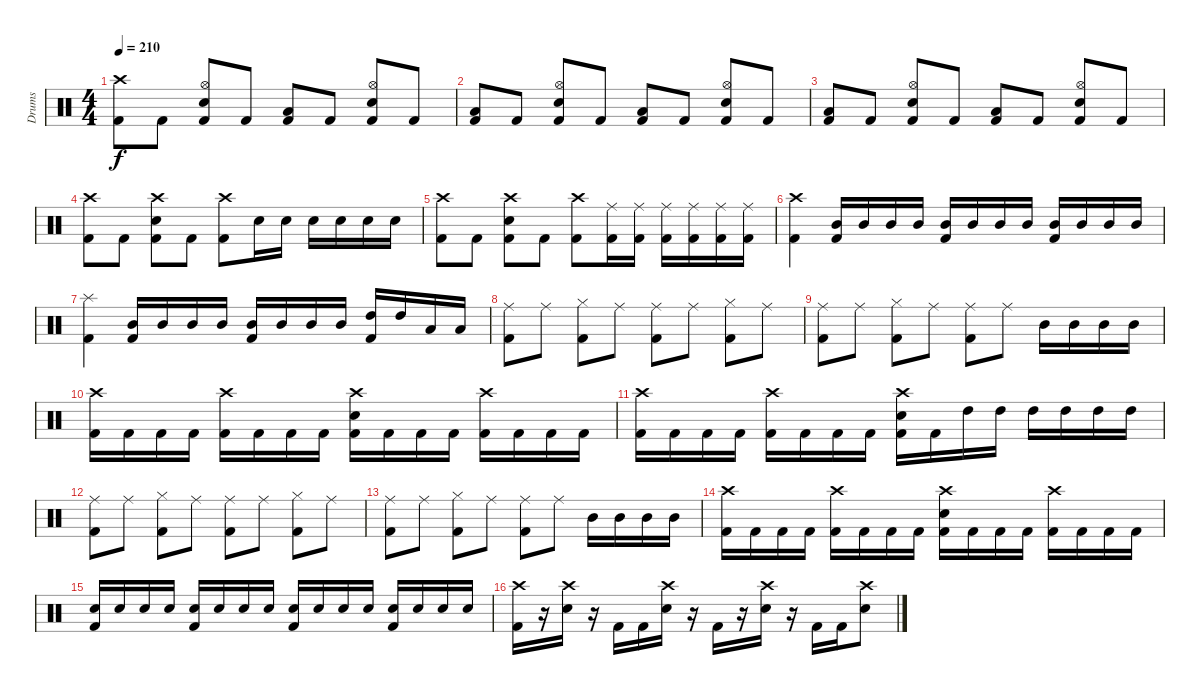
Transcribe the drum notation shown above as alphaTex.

\track ("Drums" "Drums") {instrument percussion}
\staff {score}
\articulation defaults
\ts (4 4)
\tempo 210
\clef neutral
\ks c
("Crash high (hit)" "Kick (hit) 2").8{dy f} "Kick (hit) 2".8 ("Hi-Hat (open)" "Snare (hit) 2" "Kick (hit) 2").8 "Kick (hit) 2".8 ("Low Tom (hit)" "Kick (hit) 2").8 "Kick (hit) 2".8 ("Hi-Hat (open)" "Snare (hit) 2" "Kick (hit) 2").8 "Kick (hit) 2".8 |
("Low Tom (hit)" "Kick (hit) 2").8 "Kick (hit) 2".8 ("Hi-Hat (open)" "Snare (hit) 2" "Kick (hit) 2").8 "Kick (hit) 2".8 ("Low Tom (hit)" "Kick (hit) 2").8 "Kick (hit) 2".8 ("Hi-Hat (open)" "Snare (hit) 2" "Kick (hit) 2").8 "Kick (hit) 2".8 |
("Low Tom (hit)" "Kick (hit) 2").8 "Kick (hit) 2".8 ("Hi-Hat (open)" "Snare (hit) 2" "Kick (hit) 2").8 "Kick (hit) 2".8 ("Low Tom (hit)" "Kick (hit) 2").8 "Kick (hit) 2".8 ("Hi-Hat (open)" "Snare (hit) 2" "Kick (hit) 2").8 "Kick (hit) 2".8 |
("Crash high (hit)" "Kick (hit) 2").8 "Kick (hit) 2".8 ("Crash high (hit)" "Snare (hit) 2" "Kick (hit) 2").8 "Kick (hit) 2".8 ("Crash high (hit)" "Kick (hit) 2").8 "Snare (hit) 2".16 "Snare (hit) 2".16 "Snare (hit) 2".16 "Snare (hit) 2".16 "Snare (hit) 2".16 "Snare (hit) 2".16 |
("Crash high (hit)" "Kick (hit) 2").8 "Kick (hit) 2".8 ("Crash high (hit)" "Snare (hit) 2" "Kick (hit) 2").8 "Kick (hit) 2".8 ("Crash high (hit)" "Kick (hit) 2").8 ("Ride (middle)" "Kick (hit) 2").16 ("Ride (middle)" "Kick (hit) 2").16 ("Ride (middle)" "Kick (hit) 2").16 ("Ride (middle)" "Kick (hit) 2").16 ("Ride (middle)" "Kick (hit) 2").16 ("Ride (middle)" "Kick (hit) 2").16 |
("Crash high (hit)" "Kick (hit) 2").4 ("Mid Tom (hit)" "Kick (hit) 2").16 "Mid Tom (hit)".16 "Mid Tom (hit)".16 "Mid Tom (hit)".16 ("Mid Tom (hit)" "Kick (hit) 2").16 "Mid Tom (hit)".16 "Mid Tom (hit)".16 "Mid Tom (hit)".16 ("Mid Tom (hit)" "Kick (hit) 2").16 "Mid Tom (hit)".16 "Mid Tom (hit)".16 "Mid Tom (hit)".16 |
("Splash (hit)" "Kick (hit) 2").4 ("Mid Tom (hit)" "Kick (hit) 2").16 "Mid Tom (hit)".16 "Mid Tom (hit)".16 "Mid Tom (hit)".16 ("Mid Tom (hit)" "Kick (hit) 2").16 "Mid Tom (hit)".16 "Mid Tom (hit)".16 "Mid Tom (hit)".16 ("High Tom (hit)" "Kick (hit) 2").16 "High Tom (hit)".16 "Low Tom (hit)".16 "Low Tom (hit)".16 |
("Ride (middle)" "Kick (hit) 2").8 "Ride (middle)".8 ("Hi-Hat (closed)" "Kick (hit) 2").8 "Ride (middle)".8 ("Ride (middle)" "Kick (hit) 2").8 "Ride (middle)".8 ("Hi-Hat (closed)" "Kick (hit) 2").8 "Ride (middle)".8 |
("Ride (middle)" "Kick (hit) 2").8 "Ride (middle)".8 ("Hi-Hat (closed)" "Kick (hit) 2").8 "Ride (middle)".8 ("Ride (middle)" "Kick (hit) 2").8 "Ride (middle)".8 "Mid Tom (hit)".16 "Mid Tom (hit)".16 "Mid Tom (hit)".16 "Mid Tom (hit)".16 |
("Crash high (hit)" "Kick (hit) 2").16 "Kick (hit) 2".16 "Kick (hit) 2".16 "Kick (hit) 2".16 ("Crash high (hit)" "Kick (hit) 2").16 "Kick (hit) 2".16 "Kick (hit) 2".16 "Kick (hit) 2".16 ("Crash high (hit)" "Snare (hit) 2" "Kick (hit) 2").16 "Kick (hit) 2".16 "Kick (hit) 2".16 "Kick (hit) 2".16 ("Crash high (hit)" "Kick (hit) 2").16 "Kick (hit) 2".16 "Kick (hit) 2".16 "Kick (hit) 2".16 |
("Crash high (hit)" "Kick (hit) 2").16 "Kick (hit) 2".16 "Kick (hit) 2".16 "Kick (hit) 2".16 ("Crash high (hit)" "Kick (hit) 2").16 "Kick (hit) 2".16 "Kick (hit) 2".16 "Kick (hit) 2".16 ("Crash high (hit)" "Snare (hit) 2" "Kick (hit) 2").16 "Kick (hit) 2".16 "High Tom (hit)".16 "High Tom (hit)".16 "High Tom (hit)".16 "High Tom (hit)".16 "High Tom (hit)".16 "High Tom (hit)".16 |
("Ride (middle)" "Kick (hit) 2").8 "Ride (middle)".8 ("Hi-Hat (closed)" "Kick (hit) 2").8 "Ride (middle)".8 ("Ride (middle)" "Kick (hit) 2").8 "Ride (middle)".8 ("Hi-Hat (closed)" "Kick (hit) 2").8 "Ride (middle)".8 |
("Ride (middle)" "Kick (hit) 2").8 "Ride (middle)".8 ("Hi-Hat (closed)" "Kick (hit) 2").8 "Ride (middle)".8 ("Ride (middle)" "Kick (hit) 2").8 "Ride (middle)".8 "Mid Tom (hit)".16 "Mid Tom (hit)".16 "Mid Tom (hit)".16 "Mid Tom (hit)".16 |
("Crash high (hit)" "Kick (hit) 2").16 "Kick (hit) 2".16 "Kick (hit) 2".16 "Kick (hit) 2".16 ("Crash high (hit)" "Kick (hit) 2").16 "Kick (hit) 2".16 "Kick (hit) 2".16 "Kick (hit) 2".16 ("Crash high (hit)" "Snare (hit) 2" "Kick (hit) 2").16 "Kick (hit) 2".16 "Kick (hit) 2".16 "Kick (hit) 2".16 ("Crash high (hit)" "Kick (hit) 2").16 "Kick (hit) 2".16 "Kick (hit) 2".16 "Kick (hit) 2".16 |
("Snare (hit) 2" "Kick (hit) 2").16 "Snare (hit) 2".16 "Snare (hit) 2".16 "Snare (hit) 2".16 ("Snare (hit) 2" "Kick (hit) 2").16 "Snare (hit) 2".16 "Snare (hit) 2".16 "Snare (hit) 2".16 ("Snare (hit) 2" "Kick (hit) 2").16 "Snare (hit) 2".16 "Snare (hit) 2".16 "Snare (hit) 2".16 ("Snare (hit) 2" "Kick (hit) 2").16 "Snare (hit) 2".16 "Snare (hit) 2".16 "Snare (hit) 2".16 |
("Crash high (hit)" "Kick (hit) 2").16 r.16 ("Crash high (hit)" "Snare (hit) 2").16 r.16 "Kick (hit) 2".16 "Kick (hit) 2".16 ("Crash high (hit)" "Snare (hit) 2").16 r.16 "Kick (hit) 2".16 r.16 ("Crash high (hit)" "Snare (hit) 2").16 r.16 "Kick (hit) 2".16 "Kick (hit) 2".16 ("Crash high (hit)" "Snare (hit) 2").8
